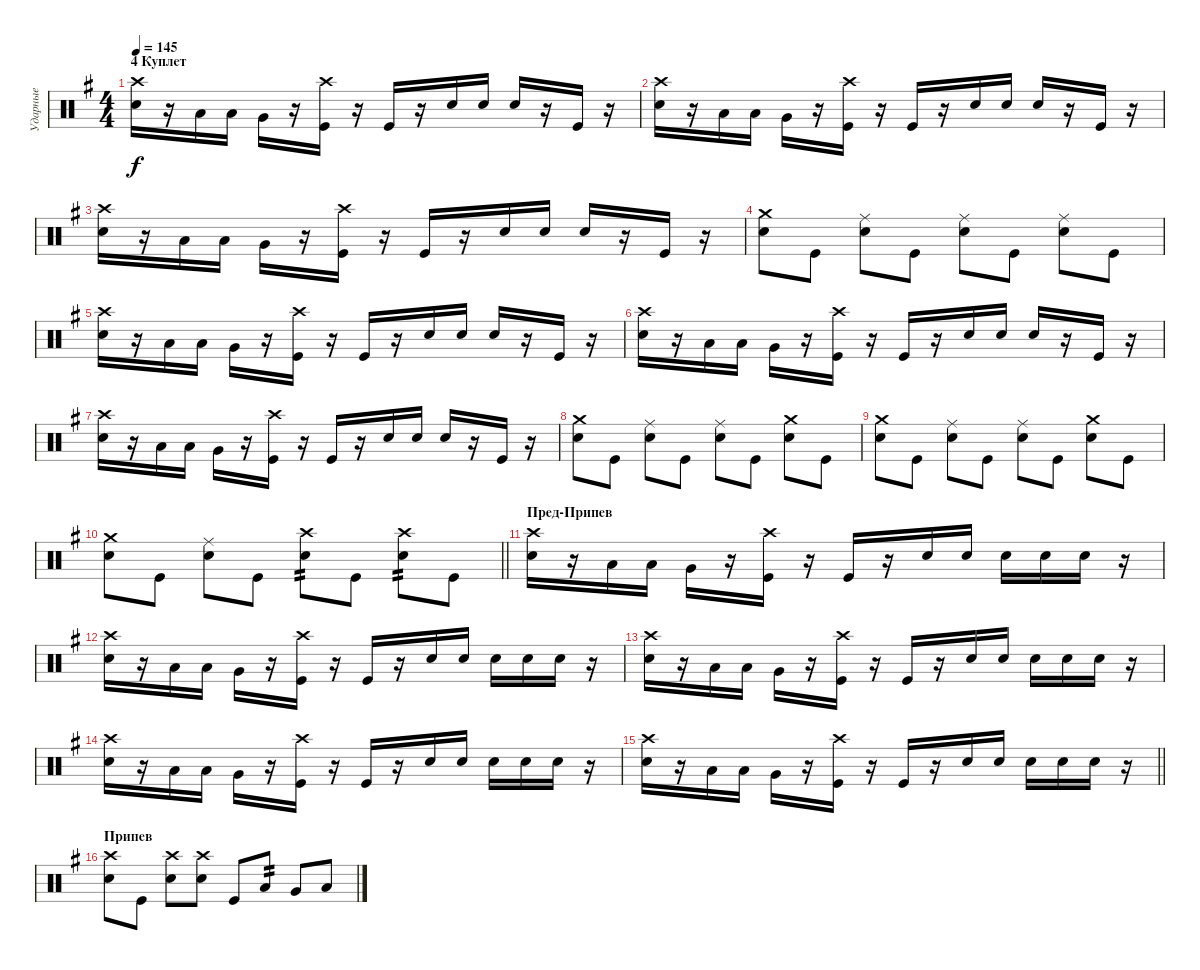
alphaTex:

\track ("Ударные" "Ударные") {instrument percussion}
\staff {score}
\articulation defaults
\ts (4 4)
\section ("" "4 Куплет")
\tempo 145
\clef neutral
\ks eminor
("Crash high (hit)" "Snare (hit) 2").16{dy f} r.16 "Low Tom (hit)".16 "Low Tom (hit)".16 "Very Low Tom (hit)".16 r.16 ("Crash high (hit)" "Kick (hit)").16 r.16 "Kick (hit)".16 r.16 "Snare (hit) 2".16 "Snare (hit) 2".16 "Snare (hit) 2".16 r.16 "Kick (hit)".16 r.16 |
("Crash high (hit)" "Snare (hit) 2").16 r.16 "Low Tom (hit)".16 "Low Tom (hit)".16 "Very Low Tom (hit)".16 r.16 ("Crash high (hit)" "Kick (hit)").16 r.16 "Kick (hit)".16 r.16 "Snare (hit) 2".16 "Snare (hit) 2".16 "Snare (hit) 2".16 r.16 "Kick (hit)".16 r.16 |
("Crash high (hit)" "Snare (hit) 2").16 r.16 "Low Tom (hit)".16 "Low Tom (hit)".16 "Very Low Tom (hit)".16 r.16 ("Crash high (hit)" "Kick (hit)").16 r.16 "Kick (hit)".16 r.16 "Snare (hit) 2".16 "Snare (hit) 2".16 "Snare (hit) 2".16 r.16 "Kick (hit)".16 r.16 |
("Crash medium (hit)" "Snare (hit) 2").8 "Kick (hit)".8 ("Ride (middle)" "Snare (hit) 2").8 "Kick (hit)".8 ("Ride (middle)" "Snare (hit) 2").8 "Kick (hit)".8 ("Ride (middle)" "Snare (hit) 2").8 "Kick (hit)".8 |
("Crash high (hit)" "Snare (hit) 2").16 r.16 "Low Tom (hit)".16 "Low Tom (hit)".16 "Very Low Tom (hit)".16 r.16 ("Crash high (hit)" "Kick (hit)").16 r.16 "Kick (hit)".16 r.16 "Snare (hit) 2".16 "Snare (hit) 2".16 "Snare (hit) 2".16 r.16 "Kick (hit)".16 r.16 |
("Crash high (hit)" "Snare (hit) 2").16 r.16 "Low Tom (hit)".16 "Low Tom (hit)".16 "Very Low Tom (hit)".16 r.16 ("Crash high (hit)" "Kick (hit)").16 r.16 "Kick (hit)".16 r.16 "Snare (hit) 2".16 "Snare (hit) 2".16 "Snare (hit) 2".16 r.16 "Kick (hit)".16 r.16 |
("Crash high (hit)" "Snare (hit) 2").16 r.16 "Low Tom (hit)".16 "Low Tom (hit)".16 "Very Low Tom (hit)".16 r.16 ("Crash high (hit)" "Kick (hit)").16 r.16 "Kick (hit)".16 r.16 "Snare (hit) 2".16 "Snare (hit) 2".16 "Snare (hit) 2".16 r.16 "Kick (hit)".16 r.16 |
("Crash medium (hit)" "Snare (hit) 2").8 "Kick (hit)".8 ("Ride (middle)" "Snare (hit) 2").8 "Kick (hit)".8 ("Ride (middle)" "Snare (hit) 2").8 "Kick (hit)".8 ("Crash medium (hit)" "Snare (hit) 2").8 "Kick (hit)".8 |
("Crash medium (hit)" "Snare (hit) 2").8 "Kick (hit)".8 ("Ride (middle)" "Snare (hit) 2").8 "Kick (hit)".8 ("Ride (middle)" "Snare (hit) 2").8 "Kick (hit)".8 ("Crash medium (hit)" "Snare (hit) 2").8 "Kick (hit)".8 |
\barLineRight lightlight
("Crash medium (hit)" "Snare (hit) 2").8 "Kick (hit)".8 ("Ride (middle)" "Snare (hit) 2").8 "Kick (hit)".8 ("Crash high (hit)" "Snare (hit) 2").8{tp 2} "Kick (hit)".8 ("Crash high (hit)" "Snare (hit) 2").8{tp 2} "Kick (hit)".8 |
\section ("" "Пред-Припев")
("Crash high (hit)" "Snare (hit) 2").16 r.16 "Low Tom (hit)".16 "Low Tom (hit)".16 "Very Low Tom (hit)".16 r.16 ("Crash high (hit)" "Kick (hit)").16 r.16 "Kick (hit)".16 r.16 "Snare (hit) 2".16 "Snare (hit) 2".16 "Snare (hit) 2".16 "Snare (hit) 2".16 "Snare (hit) 2".16 r.16 |
("Crash high (hit)" "Snare (hit) 2").16 r.16 "Low Tom (hit)".16 "Low Tom (hit)".16 "Very Low Tom (hit)".16 r.16 ("Crash high (hit)" "Kick (hit)").16 r.16 "Kick (hit)".16 r.16 "Snare (hit) 2".16 "Snare (hit) 2".16 "Snare (hit) 2".16 "Snare (hit) 2".16 "Snare (hit) 2".16 r.16 |
("Crash high (hit)" "Snare (hit) 2").16 r.16 "Low Tom (hit)".16 "Low Tom (hit)".16 "Very Low Tom (hit)".16 r.16 ("Crash high (hit)" "Kick (hit)").16 r.16 "Kick (hit)".16 r.16 "Snare (hit) 2".16 "Snare (hit) 2".16 "Snare (hit) 2".16 "Snare (hit) 2".16 "Snare (hit) 2".16 r.16 |
("Crash high (hit)" "Snare (hit) 2").16 r.16 "Low Tom (hit)".16 "Low Tom (hit)".16 "Very Low Tom (hit)".16 r.16 ("Crash high (hit)" "Kick (hit)").16 r.16 "Kick (hit)".16 r.16 "Snare (hit) 2".16 "Snare (hit) 2".16 "Snare (hit) 2".16 "Snare (hit) 2".16 "Snare (hit) 2".16 r.16 |
\barLineRight lightlight
("Crash high (hit)" "Snare (hit) 2").16 r.16 "Low Tom (hit)".16 "Low Tom (hit)".16 "Very Low Tom (hit)".16 r.16 ("Crash high (hit)" "Kick (hit)").16 r.16 "Kick (hit)".16 r.16 "Snare (hit) 2".16 "Snare (hit) 2".16 "Snare (hit) 2".16 "Snare (hit) 2".16 "Snare (hit) 2".16 r.16 |
\section ("" "Припев")
("Crash high (hit)" "Snare (hit) 2").8 "Kick (hit)".8 ("Crash high (hit)" "Snare (hit) 2").8 ("Crash high (hit)" "Snare (hit) 2").8 "Kick (hit)".8 "Low Tom (hit)".8{tp 2} "Very Low Tom (hit)".8 "Low Floor Tom (hit)".8
